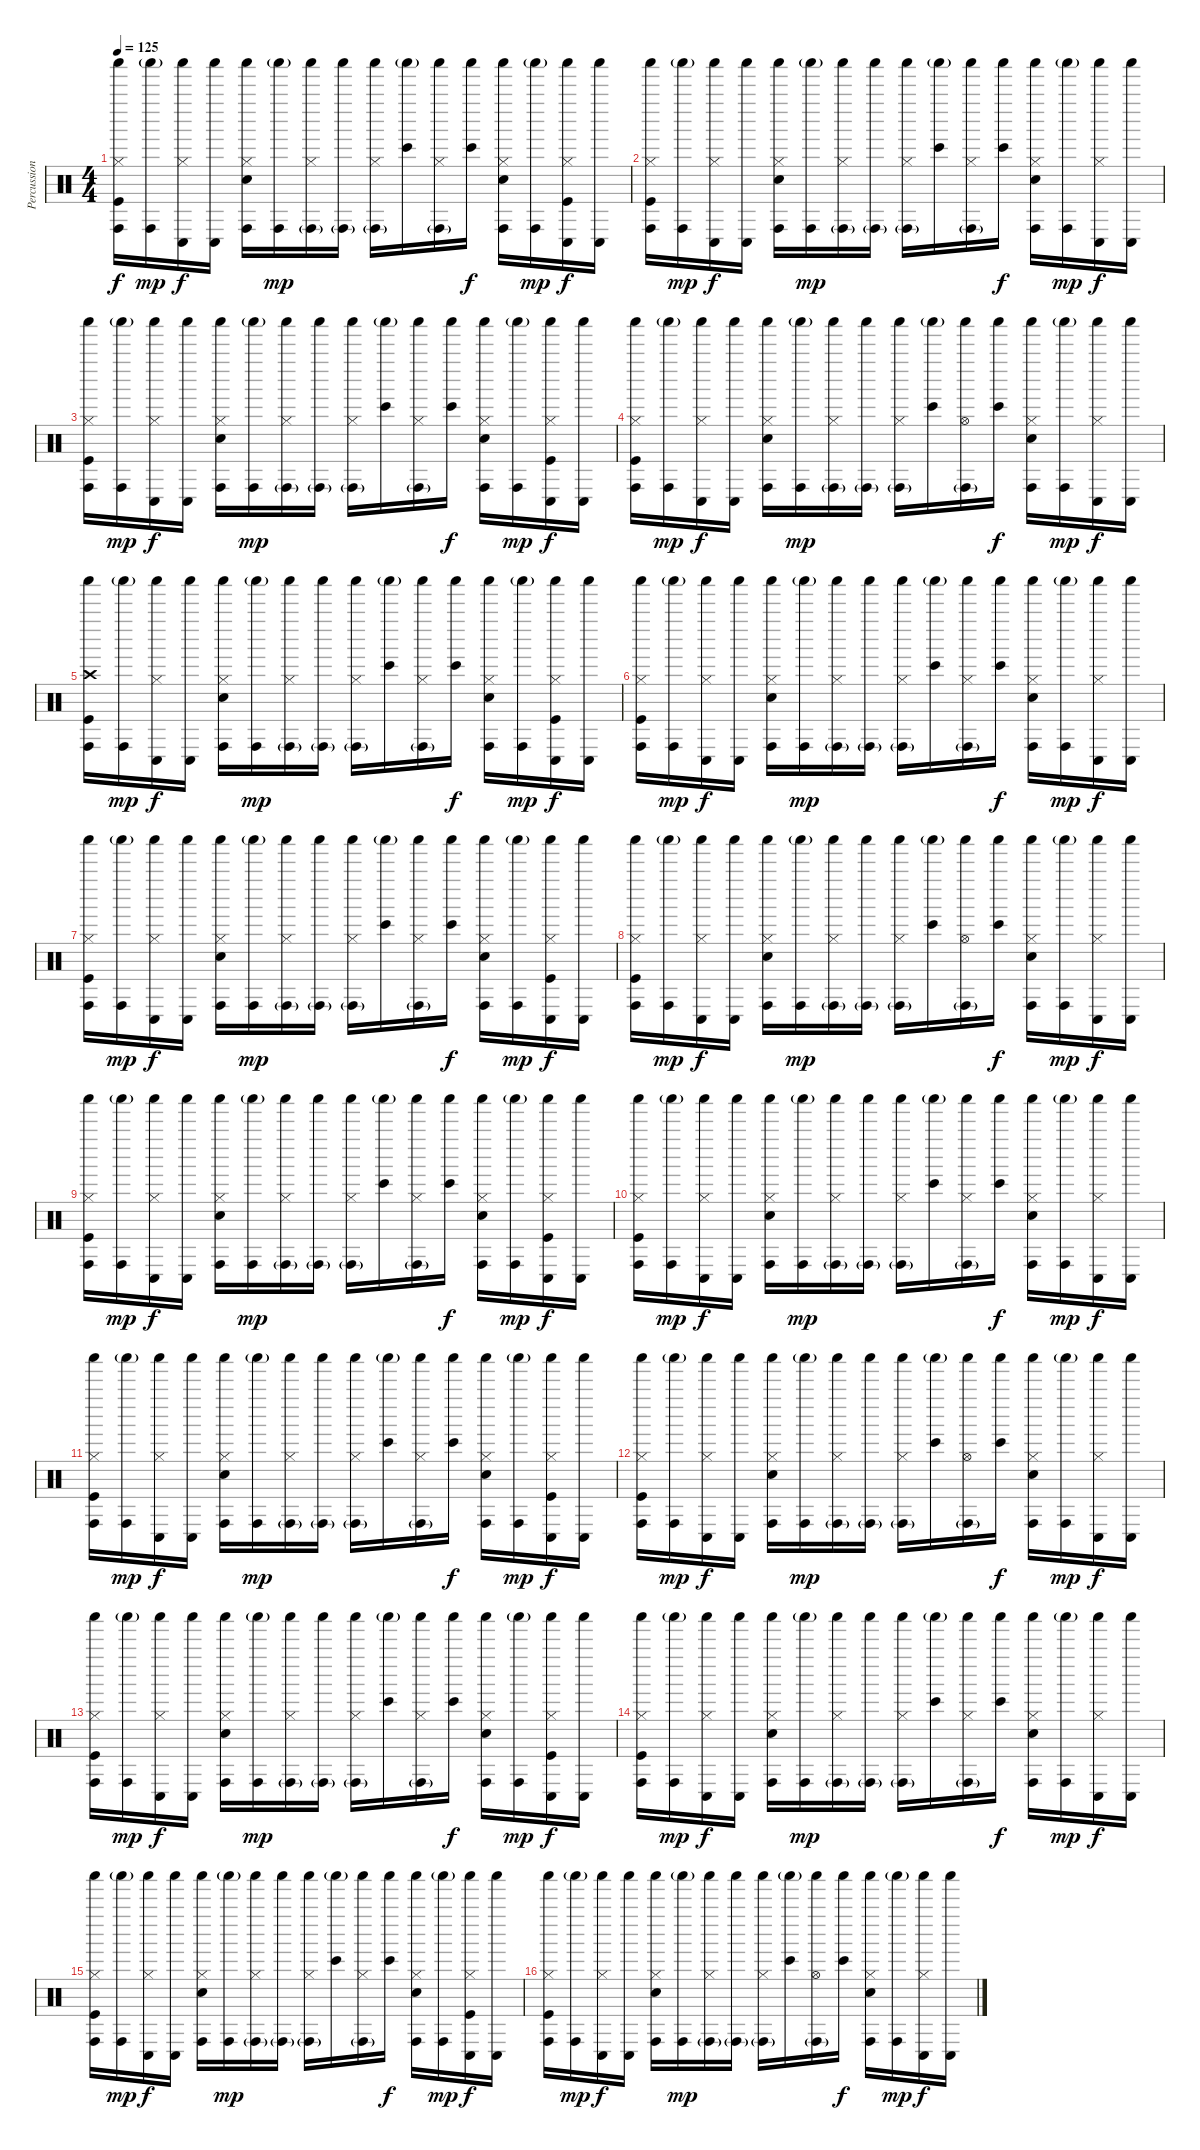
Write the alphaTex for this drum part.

\track ("Percussion" "Percussion") {instrument percussion}
\staff {score}
\articulation defaults
\ts (4 4)
\tempo 125
\clef neutral
\ks c
("Hi-Hat (closed)" "Shaker (hit)" "Conga high (hit)" "Kick (hit)").16{dy f} ("Shaker (hit)"{g} "Conga high (hit)").16{dy mp} ("Hi-Hat (closed)" "Shaker (hit)" "Conga low (hit)").16{dy f} ("Shaker (hit)" "Conga low (hit)").16 ("Hi-Hat (closed)" "Shaker (hit)" "Conga high (hit)" "Electric Snare (hit)").16 ("Shaker (hit)"{g} "Conga high (hit)").16{dy mp} ("Hi-Hat (closed)" "Shaker (hit)" "Conga high (hit)"{g}).16 ("Shaker (hit)" "Conga high (hit)"{g}).16 ("Hi-Hat (closed)" "Shaker (hit)" "Conga high (hit)"{g}).16 ("Shaker (hit)"{g} "Bongo High (hit)").16 ("Hi-Hat (closed)" "Shaker (hit)" "Conga high (hit)"{g}).16 ("Shaker (hit)" "Bongo High (hit)").16{dy f} ("Hi-Hat (closed)" "Shaker (hit)" "Conga high (hit)" "Electric Snare (hit)").16 ("Shaker (hit)"{g} "Conga high (hit)").16{dy mp} ("Hi-Hat (closed)" "Shaker (hit)" "Conga low (hit)" "Kick (hit)").16{dy f} ("Shaker (hit)" "Conga low (hit)").16 |
("Hi-Hat (closed)" "Shaker (hit)" "Conga high (hit)" "Kick (hit)").16 ("Shaker (hit)"{g} "Conga high (hit)").16{dy mp} ("Hi-Hat (closed)" "Shaker (hit)" "Conga low (hit)").16{dy f} ("Shaker (hit)" "Conga low (hit)").16 ("Hi-Hat (closed)" "Shaker (hit)" "Conga high (hit)" "Electric Snare (hit)").16 ("Shaker (hit)"{g} "Conga high (hit)").16{dy mp} ("Hi-Hat (closed)" "Shaker (hit)" "Conga high (hit)"{g}).16 ("Shaker (hit)" "Conga high (hit)"{g}).16 ("Hi-Hat (closed)" "Shaker (hit)" "Conga high (hit)"{g}).16 ("Shaker (hit)"{g} "Bongo High (hit)").16 ("Hi-Hat (closed)" "Shaker (hit)" "Conga high (hit)"{g}).16 ("Shaker (hit)" "Bongo High (hit)").16{dy f} ("Hi-Hat (closed)" "Shaker (hit)" "Conga high (hit)" "Electric Snare (hit)").16 ("Shaker (hit)"{g} "Conga high (hit)").16{dy mp} ("Hi-Hat (closed)" "Shaker (hit)" "Conga low (hit)").16{dy f} ("Shaker (hit)" "Conga low (hit)").16 |
("Hi-Hat (closed)" "Shaker (hit)" "Conga high (hit)" "Kick (hit)").16 ("Shaker (hit)"{g} "Conga high (hit)").16{dy mp} ("Hi-Hat (closed)" "Shaker (hit)" "Conga low (hit)").16{dy f} ("Shaker (hit)" "Conga low (hit)").16 ("Hi-Hat (closed)" "Shaker (hit)" "Conga high (hit)" "Electric Snare (hit)").16 ("Shaker (hit)"{g} "Conga high (hit)").16{dy mp} ("Hi-Hat (closed)" "Shaker (hit)" "Conga high (hit)"{g}).16 ("Shaker (hit)" "Conga high (hit)"{g}).16 ("Hi-Hat (closed)" "Shaker (hit)" "Conga high (hit)"{g}).16 ("Shaker (hit)"{g} "Bongo High (hit)").16 ("Hi-Hat (closed)" "Shaker (hit)" "Conga high (hit)"{g}).16 ("Shaker (hit)" "Bongo High (hit)").16{dy f} ("Hi-Hat (closed)" "Shaker (hit)" "Conga high (hit)" "Electric Snare (hit)").16 ("Shaker (hit)"{g} "Conga high (hit)").16{dy mp} ("Hi-Hat (closed)" "Shaker (hit)" "Conga low (hit)" "Kick (hit)").16{dy f} ("Shaker (hit)" "Conga low (hit)").16 |
("Hi-Hat (closed)" "Shaker (hit)" "Conga high (hit)" "Kick (hit)").16 ("Shaker (hit)"{g} "Conga high (hit)").16{dy mp} ("Hi-Hat (closed)" "Shaker (hit)" "Conga low (hit)").16{dy f} ("Shaker (hit)" "Conga low (hit)").16 ("Hi-Hat (closed)" "Shaker (hit)" "Conga high (hit)" "Electric Snare (hit)").16 ("Shaker (hit)"{g} "Conga high (hit)").16{dy mp} ("Hi-Hat (closed)" "Shaker (hit)" "Conga high (hit)"{g}).16 ("Shaker (hit)" "Conga high (hit)"{g}).16 ("Hi-Hat (closed)" "Shaker (hit)" "Conga high (hit)"{g}).16 ("Shaker (hit)"{g} "Bongo High (hit)").16 ("Hi-Hat (open)" "Shaker (hit)" "Conga high (hit)"{g}).16 ("Shaker (hit)" "Bongo High (hit)").16{dy f} ("Hi-Hat (closed)" "Shaker (hit)" "Conga high (hit)" "Electric Snare (hit)").16 ("Shaker (hit)"{g} "Conga high (hit)").16{dy mp} ("Hi-Hat (closed)" "Shaker (hit)" "Conga low (hit)").16{dy f} ("Shaker (hit)" "Conga low (hit)").16 |
("Crash high (hit)" "Shaker (hit)" "Conga high (hit)" "Kick (hit)").16 ("Shaker (hit)"{g} "Conga high (hit)").16{dy mp} ("Hi-Hat (closed)" "Shaker (hit)" "Conga low (hit)").16{dy f} ("Shaker (hit)" "Conga low (hit)").16 ("Hi-Hat (closed)" "Shaker (hit)" "Conga high (hit)" "Electric Snare (hit)").16 ("Shaker (hit)"{g} "Conga high (hit)").16{dy mp} ("Hi-Hat (closed)" "Shaker (hit)" "Conga high (hit)"{g}).16 ("Shaker (hit)" "Conga high (hit)"{g}).16 ("Hi-Hat (closed)" "Shaker (hit)" "Conga high (hit)"{g}).16 ("Shaker (hit)"{g} "Bongo High (hit)").16 ("Hi-Hat (closed)" "Shaker (hit)" "Conga high (hit)"{g}).16 ("Shaker (hit)" "Bongo High (hit)").16{dy f} ("Hi-Hat (closed)" "Shaker (hit)" "Conga high (hit)" "Electric Snare (hit)").16 ("Shaker (hit)"{g} "Conga high (hit)").16{dy mp} ("Hi-Hat (closed)" "Shaker (hit)" "Conga low (hit)" "Kick (hit)").16{dy f} ("Shaker (hit)" "Conga low (hit)").16 |
("Hi-Hat (closed)" "Shaker (hit)" "Conga high (hit)" "Kick (hit)").16 ("Shaker (hit)"{g} "Conga high (hit)").16{dy mp} ("Hi-Hat (closed)" "Shaker (hit)" "Conga low (hit)").16{dy f} ("Shaker (hit)" "Conga low (hit)").16 ("Hi-Hat (closed)" "Shaker (hit)" "Conga high (hit)" "Electric Snare (hit)").16 ("Shaker (hit)"{g} "Conga high (hit)").16{dy mp} ("Hi-Hat (closed)" "Shaker (hit)" "Conga high (hit)"{g}).16 ("Shaker (hit)" "Conga high (hit)"{g}).16 ("Hi-Hat (closed)" "Shaker (hit)" "Conga high (hit)"{g}).16 ("Shaker (hit)"{g} "Bongo High (hit)").16 ("Hi-Hat (closed)" "Shaker (hit)" "Conga high (hit)"{g}).16 ("Shaker (hit)" "Bongo High (hit)").16{dy f} ("Hi-Hat (closed)" "Shaker (hit)" "Conga high (hit)" "Electric Snare (hit)").16 ("Shaker (hit)"{g} "Conga high (hit)").16{dy mp} ("Hi-Hat (closed)" "Shaker (hit)" "Conga low (hit)").16{dy f} ("Shaker (hit)" "Conga low (hit)").16 |
("Hi-Hat (closed)" "Shaker (hit)" "Conga high (hit)" "Kick (hit)").16 ("Shaker (hit)"{g} "Conga high (hit)").16{dy mp} ("Hi-Hat (closed)" "Shaker (hit)" "Conga low (hit)").16{dy f} ("Shaker (hit)" "Conga low (hit)").16 ("Hi-Hat (closed)" "Shaker (hit)" "Conga high (hit)" "Electric Snare (hit)").16 ("Shaker (hit)"{g} "Conga high (hit)").16{dy mp} ("Hi-Hat (closed)" "Shaker (hit)" "Conga high (hit)"{g}).16 ("Shaker (hit)" "Conga high (hit)"{g}).16 ("Hi-Hat (closed)" "Shaker (hit)" "Conga high (hit)"{g}).16 ("Shaker (hit)"{g} "Bongo High (hit)").16 ("Hi-Hat (closed)" "Shaker (hit)" "Conga high (hit)"{g}).16 ("Shaker (hit)" "Bongo High (hit)").16{dy f} ("Hi-Hat (closed)" "Shaker (hit)" "Conga high (hit)" "Electric Snare (hit)").16 ("Shaker (hit)"{g} "Conga high (hit)").16{dy mp} ("Hi-Hat (closed)" "Shaker (hit)" "Conga low (hit)" "Kick (hit)").16{dy f} ("Shaker (hit)" "Conga low (hit)").16 |
("Hi-Hat (closed)" "Shaker (hit)" "Conga high (hit)" "Kick (hit)").16 ("Shaker (hit)"{g} "Conga high (hit)").16{dy mp} ("Hi-Hat (closed)" "Shaker (hit)" "Conga low (hit)").16{dy f} ("Shaker (hit)" "Conga low (hit)").16 ("Hi-Hat (closed)" "Shaker (hit)" "Conga high (hit)" "Electric Snare (hit)").16 ("Shaker (hit)"{g} "Conga high (hit)").16{dy mp} ("Hi-Hat (closed)" "Shaker (hit)" "Conga high (hit)"{g}).16 ("Shaker (hit)" "Conga high (hit)"{g}).16 ("Hi-Hat (closed)" "Shaker (hit)" "Conga high (hit)"{g}).16 ("Shaker (hit)"{g} "Bongo High (hit)").16 ("Hi-Hat (open)" "Shaker (hit)" "Conga high (hit)"{g}).16 ("Shaker (hit)" "Bongo High (hit)").16{dy f} ("Hi-Hat (closed)" "Shaker (hit)" "Conga high (hit)" "Electric Snare (hit)").16 ("Shaker (hit)"{g} "Conga high (hit)").16{dy mp} ("Hi-Hat (closed)" "Shaker (hit)" "Conga low (hit)").16{dy f} ("Shaker (hit)" "Conga low (hit)").16 |
("Hi-Hat (closed)" "Shaker (hit)" "Conga high (hit)" "Kick (hit)").16 ("Shaker (hit)"{g} "Conga high (hit)").16{dy mp} ("Hi-Hat (closed)" "Shaker (hit)" "Conga low (hit)").16{dy f} ("Shaker (hit)" "Conga low (hit)").16 ("Hi-Hat (closed)" "Shaker (hit)" "Conga high (hit)" "Electric Snare (hit)").16 ("Shaker (hit)"{g} "Conga high (hit)").16{dy mp} ("Hi-Hat (closed)" "Shaker (hit)" "Conga high (hit)"{g}).16 ("Shaker (hit)" "Conga high (hit)"{g}).16 ("Hi-Hat (closed)" "Shaker (hit)" "Conga high (hit)"{g}).16 ("Shaker (hit)"{g} "Bongo High (hit)").16 ("Hi-Hat (closed)" "Shaker (hit)" "Conga high (hit)"{g}).16 ("Shaker (hit)" "Bongo High (hit)").16{dy f} ("Hi-Hat (closed)" "Shaker (hit)" "Conga high (hit)" "Electric Snare (hit)").16 ("Shaker (hit)"{g} "Conga high (hit)").16{dy mp} ("Hi-Hat (closed)" "Shaker (hit)" "Conga low (hit)" "Kick (hit)").16{dy f} ("Shaker (hit)" "Conga low (hit)").16 |
("Hi-Hat (closed)" "Shaker (hit)" "Conga high (hit)" "Kick (hit)").16 ("Shaker (hit)"{g} "Conga high (hit)").16{dy mp} ("Hi-Hat (closed)" "Shaker (hit)" "Conga low (hit)").16{dy f} ("Shaker (hit)" "Conga low (hit)").16 ("Hi-Hat (closed)" "Shaker (hit)" "Conga high (hit)" "Electric Snare (hit)").16 ("Shaker (hit)"{g} "Conga high (hit)").16{dy mp} ("Hi-Hat (closed)" "Shaker (hit)" "Conga high (hit)"{g}).16 ("Shaker (hit)" "Conga high (hit)"{g}).16 ("Hi-Hat (closed)" "Shaker (hit)" "Conga high (hit)"{g}).16 ("Shaker (hit)"{g} "Bongo High (hit)").16 ("Hi-Hat (closed)" "Shaker (hit)" "Conga high (hit)"{g}).16 ("Shaker (hit)" "Bongo High (hit)").16{dy f} ("Hi-Hat (closed)" "Shaker (hit)" "Conga high (hit)" "Electric Snare (hit)").16 ("Shaker (hit)"{g} "Conga high (hit)").16{dy mp} ("Hi-Hat (closed)" "Shaker (hit)" "Conga low (hit)").16{dy f} ("Shaker (hit)" "Conga low (hit)").16 |
("Hi-Hat (closed)" "Shaker (hit)" "Conga high (hit)" "Kick (hit)").16 ("Shaker (hit)"{g} "Conga high (hit)").16{dy mp} ("Hi-Hat (closed)" "Shaker (hit)" "Conga low (hit)").16{dy f} ("Shaker (hit)" "Conga low (hit)").16 ("Hi-Hat (closed)" "Shaker (hit)" "Conga high (hit)" "Electric Snare (hit)").16 ("Shaker (hit)"{g} "Conga high (hit)").16{dy mp} ("Hi-Hat (closed)" "Shaker (hit)" "Conga high (hit)"{g}).16 ("Shaker (hit)" "Conga high (hit)"{g}).16 ("Hi-Hat (closed)" "Shaker (hit)" "Conga high (hit)"{g}).16 ("Shaker (hit)"{g} "Bongo High (hit)").16 ("Hi-Hat (closed)" "Shaker (hit)" "Conga high (hit)"{g}).16 ("Shaker (hit)" "Bongo High (hit)").16{dy f} ("Hi-Hat (closed)" "Shaker (hit)" "Conga high (hit)" "Electric Snare (hit)").16 ("Shaker (hit)"{g} "Conga high (hit)").16{dy mp} ("Hi-Hat (closed)" "Shaker (hit)" "Conga low (hit)" "Kick (hit)").16{dy f} ("Shaker (hit)" "Conga low (hit)").16 |
("Hi-Hat (closed)" "Shaker (hit)" "Conga high (hit)" "Kick (hit)").16 ("Shaker (hit)"{g} "Conga high (hit)").16{dy mp} ("Hi-Hat (closed)" "Shaker (hit)" "Conga low (hit)").16{dy f} ("Shaker (hit)" "Conga low (hit)").16 ("Hi-Hat (closed)" "Shaker (hit)" "Conga high (hit)" "Electric Snare (hit)").16 ("Shaker (hit)"{g} "Conga high (hit)").16{dy mp} ("Hi-Hat (closed)" "Shaker (hit)" "Conga high (hit)"{g}).16 ("Shaker (hit)" "Conga high (hit)"{g}).16 ("Hi-Hat (closed)" "Shaker (hit)" "Conga high (hit)"{g}).16 ("Shaker (hit)"{g} "Bongo High (hit)").16 ("Hi-Hat (open)" "Shaker (hit)" "Conga high (hit)"{g}).16 ("Shaker (hit)" "Bongo High (hit)").16{dy f} ("Hi-Hat (closed)" "Shaker (hit)" "Conga high (hit)" "Electric Snare (hit)").16 ("Shaker (hit)"{g} "Conga high (hit)").16{dy mp} ("Hi-Hat (closed)" "Shaker (hit)" "Conga low (hit)").16{dy f} ("Shaker (hit)" "Conga low (hit)").16 |
("Hi-Hat (closed)" "Shaker (hit)" "Conga high (hit)" "Kick (hit)").16 ("Shaker (hit)"{g} "Conga high (hit)").16{dy mp} ("Hi-Hat (closed)" "Shaker (hit)" "Conga low (hit)").16{dy f} ("Shaker (hit)" "Conga low (hit)").16 ("Hi-Hat (closed)" "Shaker (hit)" "Conga high (hit)" "Electric Snare (hit)").16 ("Shaker (hit)"{g} "Conga high (hit)").16{dy mp} ("Hi-Hat (closed)" "Shaker (hit)" "Conga high (hit)"{g}).16 ("Shaker (hit)" "Conga high (hit)"{g}).16 ("Hi-Hat (closed)" "Shaker (hit)" "Conga high (hit)"{g}).16 ("Shaker (hit)"{g} "Bongo High (hit)").16 ("Hi-Hat (closed)" "Shaker (hit)" "Conga high (hit)"{g}).16 ("Shaker (hit)" "Bongo High (hit)").16{dy f} ("Hi-Hat (closed)" "Shaker (hit)" "Conga high (hit)" "Electric Snare (hit)").16 ("Shaker (hit)"{g} "Conga high (hit)").16{dy mp} ("Hi-Hat (closed)" "Shaker (hit)" "Conga low (hit)" "Kick (hit)").16{dy f} ("Shaker (hit)" "Conga low (hit)").16 |
("Hi-Hat (closed)" "Shaker (hit)" "Conga high (hit)" "Kick (hit)").16 ("Shaker (hit)"{g} "Conga high (hit)").16{dy mp} ("Hi-Hat (closed)" "Shaker (hit)" "Conga low (hit)").16{dy f} ("Shaker (hit)" "Conga low (hit)").16 ("Hi-Hat (closed)" "Shaker (hit)" "Conga high (hit)" "Electric Snare (hit)").16 ("Shaker (hit)"{g} "Conga high (hit)").16{dy mp} ("Hi-Hat (closed)" "Shaker (hit)" "Conga high (hit)"{g}).16 ("Shaker (hit)" "Conga high (hit)"{g}).16 ("Hi-Hat (closed)" "Shaker (hit)" "Conga high (hit)"{g}).16 ("Shaker (hit)"{g} "Bongo High (hit)").16 ("Hi-Hat (closed)" "Shaker (hit)" "Conga high (hit)"{g}).16 ("Shaker (hit)" "Bongo High (hit)").16{dy f} ("Hi-Hat (closed)" "Shaker (hit)" "Conga high (hit)" "Electric Snare (hit)").16 ("Shaker (hit)"{g} "Conga high (hit)").16{dy mp} ("Hi-Hat (closed)" "Shaker (hit)" "Conga low (hit)").16{dy f} ("Shaker (hit)" "Conga low (hit)").16 |
("Hi-Hat (closed)" "Shaker (hit)" "Conga high (hit)" "Kick (hit)").16 ("Shaker (hit)"{g} "Conga high (hit)").16{dy mp} ("Hi-Hat (closed)" "Shaker (hit)" "Conga low (hit)").16{dy f} ("Shaker (hit)" "Conga low (hit)").16 ("Hi-Hat (closed)" "Shaker (hit)" "Conga high (hit)" "Electric Snare (hit)").16 ("Shaker (hit)"{g} "Conga high (hit)").16{dy mp} ("Hi-Hat (closed)" "Shaker (hit)" "Conga high (hit)"{g}).16 ("Shaker (hit)" "Conga high (hit)"{g}).16 ("Hi-Hat (closed)" "Shaker (hit)" "Conga high (hit)"{g}).16 ("Shaker (hit)"{g} "Bongo High (hit)").16 ("Hi-Hat (closed)" "Shaker (hit)" "Conga high (hit)"{g}).16 ("Shaker (hit)" "Bongo High (hit)").16{dy f} ("Hi-Hat (closed)" "Shaker (hit)" "Conga high (hit)" "Electric Snare (hit)").16 ("Shaker (hit)"{g} "Conga high (hit)").16{dy mp} ("Hi-Hat (closed)" "Shaker (hit)" "Conga low (hit)" "Kick (hit)").16{dy f} ("Shaker (hit)" "Conga low (hit)").16 |
("Hi-Hat (closed)" "Shaker (hit)" "Conga high (hit)" "Kick (hit)").16 ("Shaker (hit)"{g} "Conga high (hit)").16{dy mp} ("Hi-Hat (closed)" "Shaker (hit)" "Conga low (hit)").16{dy f} ("Shaker (hit)" "Conga low (hit)").16 ("Hi-Hat (closed)" "Shaker (hit)" "Conga high (hit)" "Electric Snare (hit)").16 ("Shaker (hit)"{g} "Conga high (hit)").16{dy mp} ("Hi-Hat (closed)" "Shaker (hit)" "Conga high (hit)"{g}).16 ("Shaker (hit)" "Conga high (hit)"{g}).16 ("Hi-Hat (closed)" "Shaker (hit)" "Conga high (hit)"{g}).16 ("Shaker (hit)"{g} "Bongo High (hit)").16 ("Hi-Hat (open)" "Shaker (hit)" "Conga high (hit)"{g}).16 ("Shaker (hit)" "Bongo High (hit)").16{dy f} ("Hi-Hat (closed)" "Shaker (hit)" "Conga high (hit)" "Electric Snare (hit)").16 ("Shaker (hit)"{g} "Conga high (hit)").16{dy mp} ("Hi-Hat (closed)" "Shaker (hit)" "Conga low (hit)").16{dy f} ("Shaker (hit)" "Conga low (hit)").16
